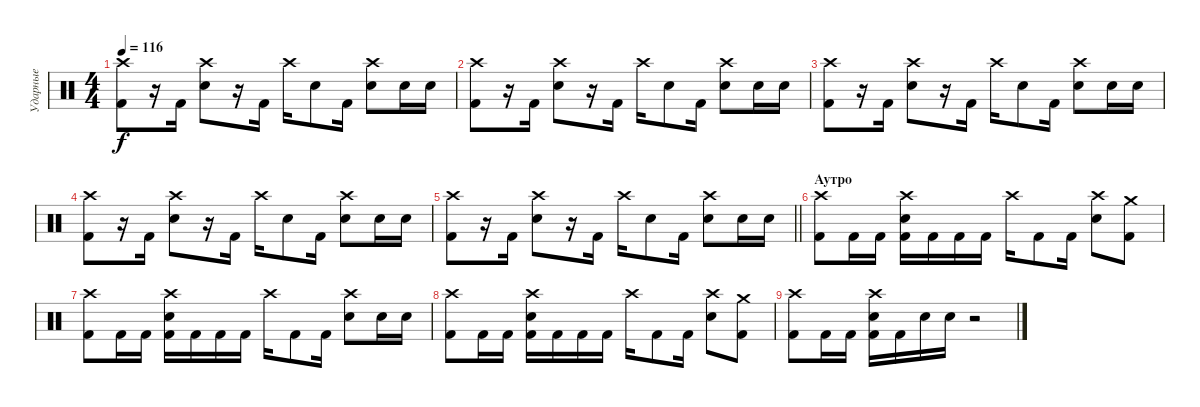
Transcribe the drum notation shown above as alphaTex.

\track ("Ударные" "Ударные") {instrument percussion}
\staff {score}
\articulation defaults
\ts (4 4)
\tempo 116
\clef neutral
\ks c
("Crash high (hit)" "Kick (hit) 2").8{dy f} r.16 "Kick (hit) 2".16 ("Crash high (hit)" "Snare (hit) 2").8 r.16 "Kick (hit) 2".16 "Crash high (hit)".16 "Snare (hit) 2".8 "Kick (hit) 2".16 ("Crash high (hit)" "Snare (hit) 2").8 "Snare (hit) 2".16 "Snare (hit) 2".16 |
("Crash high (hit)" "Kick (hit) 2").8 r.16 "Kick (hit) 2".16 ("Crash high (hit)" "Snare (hit) 2").8 r.16 "Kick (hit) 2".16 "Crash high (hit)".16 "Snare (hit) 2".8 "Kick (hit) 2".16 ("Crash high (hit)" "Snare (hit) 2").8 "Snare (hit) 2".16 "Snare (hit) 2".16 |
("Crash high (hit)" "Kick (hit) 2").8 r.16 "Kick (hit) 2".16 ("Crash high (hit)" "Snare (hit) 2").8 r.16 "Kick (hit) 2".16 "Crash high (hit)".16 "Snare (hit) 2".8 "Kick (hit) 2".16 ("Crash high (hit)" "Snare (hit) 2").8 "Snare (hit) 2".16 "Snare (hit) 2".16 |
("Crash high (hit)" "Kick (hit) 2").8 r.16 "Kick (hit) 2".16 ("Crash high (hit)" "Snare (hit) 2").8 r.16 "Kick (hit) 2".16 "Crash high (hit)".16 "Snare (hit) 2".8 "Kick (hit) 2".16 ("Crash high (hit)" "Snare (hit) 2").8 "Snare (hit) 2".16 "Snare (hit) 2".16 |
\barLineRight lightlight
("Crash high (hit)" "Kick (hit) 2").8 r.16 "Kick (hit) 2".16 ("Crash high (hit)" "Snare (hit) 2").8 r.16 "Kick (hit) 2".16 "Crash high (hit)".16 "Snare (hit) 2".8 "Kick (hit) 2".16 ("Crash high (hit)" "Snare (hit) 2").8 "Snare (hit) 2".16 "Snare (hit) 2".16 |
\section ("" "Аутро")
("Crash high (hit)" "Kick (hit) 2").8 "Kick (hit) 2".16 "Kick (hit) 2".16 ("Crash high (hit)" "Snare (hit) 2" "Kick (hit) 2").16 "Kick (hit) 2".16 "Kick (hit) 2".16 "Kick (hit) 2".16 "Crash high (hit)".16 "Kick (hit) 2".8 "Kick (hit) 2".16 ("Crash high (hit)" "Snare (hit) 2").8 ("Crash medium (hit)" "Kick (hit) 2").8 |
("Crash high (hit)" "Kick (hit) 2").8 "Kick (hit) 2".16 "Kick (hit) 2".16 ("Crash high (hit)" "Snare (hit) 2" "Kick (hit) 2").16 "Kick (hit) 2".16 "Kick (hit) 2".16 "Kick (hit) 2".16 "Crash high (hit)".16 "Kick (hit) 2".8 "Kick (hit) 2".16 ("Crash high (hit)" "Snare (hit) 2").8 "Snare (hit) 2".16 "Snare (hit) 2".16 |
("Crash high (hit)" "Kick (hit) 2").8 "Kick (hit) 2".16 "Kick (hit) 2".16 ("Crash high (hit)" "Snare (hit) 2" "Kick (hit) 2").16 "Kick (hit) 2".16 "Kick (hit) 2".16 "Kick (hit) 2".16 "Crash high (hit)".16 "Kick (hit) 2".8 "Kick (hit) 2".16 ("Crash high (hit)" "Snare (hit) 2").8 ("Crash medium (hit)" "Kick (hit) 2").8 |
("Crash high (hit)" "Kick (hit) 2").8 "Kick (hit) 2".16 "Kick (hit) 2".16 ("Crash high (hit)" "Snare (hit) 2" "Kick (hit) 2").16 "Kick (hit) 2".16 "Snare (hit) 2".16 "Snare (hit) 2".16 r.2
